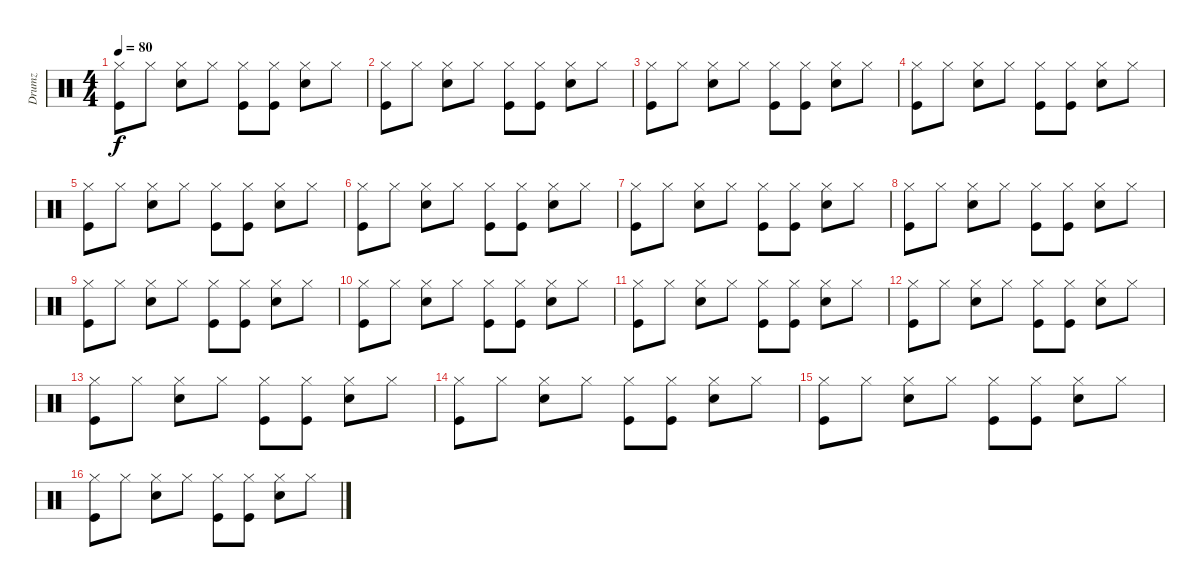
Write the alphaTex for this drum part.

\track ("Drumz" "Drumz") {instrument percussion}
\staff {score}
\articulation defaults
\ts (4 4)
\tempo 80
\clef neutral
\ks c
("Hi-Hat (closed)" "Kick (hit)").8{dy f} "Hi-Hat (closed)".8 ("Hi-Hat (closed)" "Electric Snare (hit)").8 "Hi-Hat (closed)".8 ("Hi-Hat (closed)" "Kick (hit)").8 ("Hi-Hat (closed)" "Kick (hit)").8 ("Hi-Hat (closed)" "Electric Snare (hit)").8 "Hi-Hat (closed)".8 |
("Hi-Hat (closed)" "Kick (hit)").8 "Hi-Hat (closed)".8 ("Hi-Hat (closed)" "Electric Snare (hit)").8 "Hi-Hat (closed)".8 ("Hi-Hat (closed)" "Kick (hit)").8 ("Hi-Hat (closed)" "Kick (hit)").8 ("Hi-Hat (closed)" "Electric Snare (hit)").8 "Hi-Hat (closed)".8 |
("Hi-Hat (closed)" "Kick (hit)").8 "Hi-Hat (closed)".8 ("Hi-Hat (closed)" "Electric Snare (hit)").8 "Hi-Hat (closed)".8 ("Hi-Hat (closed)" "Kick (hit)").8 ("Hi-Hat (closed)" "Kick (hit)").8 ("Hi-Hat (closed)" "Electric Snare (hit)").8 "Hi-Hat (closed)".8 |
("Hi-Hat (closed)" "Kick (hit)").8 "Hi-Hat (closed)".8 ("Hi-Hat (closed)" "Electric Snare (hit)").8 "Hi-Hat (closed)".8 ("Hi-Hat (closed)" "Kick (hit)").8 ("Hi-Hat (closed)" "Kick (hit)").8 ("Hi-Hat (closed)" "Electric Snare (hit)").8 "Hi-Hat (closed)".8 |
("Hi-Hat (closed)" "Kick (hit)").8 "Hi-Hat (closed)".8 ("Hi-Hat (closed)" "Electric Snare (hit)").8 "Hi-Hat (closed)".8 ("Hi-Hat (closed)" "Kick (hit)").8 ("Hi-Hat (closed)" "Kick (hit)").8 ("Hi-Hat (closed)" "Electric Snare (hit)").8 "Hi-Hat (closed)".8 |
("Hi-Hat (closed)" "Kick (hit)").8 "Hi-Hat (closed)".8 ("Hi-Hat (closed)" "Electric Snare (hit)").8 "Hi-Hat (closed)".8 ("Hi-Hat (closed)" "Kick (hit)").8 ("Hi-Hat (closed)" "Kick (hit)").8 ("Hi-Hat (closed)" "Electric Snare (hit)").8 "Hi-Hat (closed)".8 |
("Hi-Hat (closed)" "Kick (hit)").8 "Hi-Hat (closed)".8 ("Hi-Hat (closed)" "Electric Snare (hit)").8 "Hi-Hat (closed)".8 ("Hi-Hat (closed)" "Kick (hit)").8 ("Hi-Hat (closed)" "Kick (hit)").8 ("Hi-Hat (closed)" "Electric Snare (hit)").8 "Hi-Hat (closed)".8 |
("Hi-Hat (closed)" "Kick (hit)").8 "Hi-Hat (closed)".8 ("Hi-Hat (closed)" "Electric Snare (hit)").8 "Hi-Hat (closed)".8 ("Hi-Hat (closed)" "Kick (hit)").8 ("Hi-Hat (closed)" "Kick (hit)").8 ("Hi-Hat (closed)" "Electric Snare (hit)").8 "Hi-Hat (closed)".8 |
("Hi-Hat (closed)" "Kick (hit)").8 "Hi-Hat (closed)".8 ("Hi-Hat (closed)" "Electric Snare (hit)").8 "Hi-Hat (closed)".8 ("Hi-Hat (closed)" "Kick (hit)").8 ("Hi-Hat (closed)" "Kick (hit)").8 ("Hi-Hat (closed)" "Electric Snare (hit)").8 "Hi-Hat (closed)".8 |
("Hi-Hat (closed)" "Kick (hit)").8 "Hi-Hat (closed)".8 ("Hi-Hat (closed)" "Electric Snare (hit)").8 "Hi-Hat (closed)".8 ("Hi-Hat (closed)" "Kick (hit)").8 ("Hi-Hat (closed)" "Kick (hit)").8 ("Hi-Hat (closed)" "Electric Snare (hit)").8 "Hi-Hat (closed)".8 |
("Hi-Hat (closed)" "Kick (hit)").8 "Hi-Hat (closed)".8 ("Hi-Hat (closed)" "Electric Snare (hit)").8 "Hi-Hat (closed)".8 ("Hi-Hat (closed)" "Kick (hit)").8 ("Hi-Hat (closed)" "Kick (hit)").8 ("Hi-Hat (closed)" "Electric Snare (hit)").8 "Hi-Hat (closed)".8 |
("Hi-Hat (closed)" "Kick (hit)").8 "Hi-Hat (closed)".8 ("Hi-Hat (closed)" "Electric Snare (hit)").8 "Hi-Hat (closed)".8 ("Hi-Hat (closed)" "Kick (hit)").8 ("Hi-Hat (closed)" "Kick (hit)").8 ("Hi-Hat (closed)" "Electric Snare (hit)").8 "Hi-Hat (closed)".8 |
("Hi-Hat (closed)" "Kick (hit)").8 "Hi-Hat (closed)".8 ("Hi-Hat (closed)" "Electric Snare (hit)").8 "Hi-Hat (closed)".8 ("Hi-Hat (closed)" "Kick (hit)").8 ("Hi-Hat (closed)" "Kick (hit)").8 ("Hi-Hat (closed)" "Electric Snare (hit)").8 "Hi-Hat (closed)".8 |
("Hi-Hat (closed)" "Kick (hit)").8{volume 10} "Hi-Hat (closed)".8 ("Hi-Hat (closed)" "Electric Snare (hit)").8 "Hi-Hat (closed)".8 ("Hi-Hat (closed)" "Kick (hit)").8 ("Hi-Hat (closed)" "Kick (hit)").8 ("Hi-Hat (closed)" "Electric Snare (hit)").8 "Hi-Hat (closed)".8 |
("Hi-Hat (closed)" "Kick (hit)").8{volume 6} "Hi-Hat (closed)".8 ("Hi-Hat (closed)" "Electric Snare (hit)").8 "Hi-Hat (closed)".8 ("Hi-Hat (closed)" "Kick (hit)").8 ("Hi-Hat (closed)" "Kick (hit)").8 ("Hi-Hat (closed)" "Electric Snare (hit)").8 "Hi-Hat (closed)".8 |
("Hi-Hat (closed)" "Kick (hit)").8{volume 2} "Hi-Hat (closed)".8 ("Hi-Hat (closed)" "Electric Snare (hit)").8 "Hi-Hat (closed)".8 ("Hi-Hat (closed)" "Kick (hit)").8 ("Hi-Hat (closed)" "Kick (hit)").8 ("Hi-Hat (closed)" "Electric Snare (hit)").8 "Hi-Hat (closed)".8
